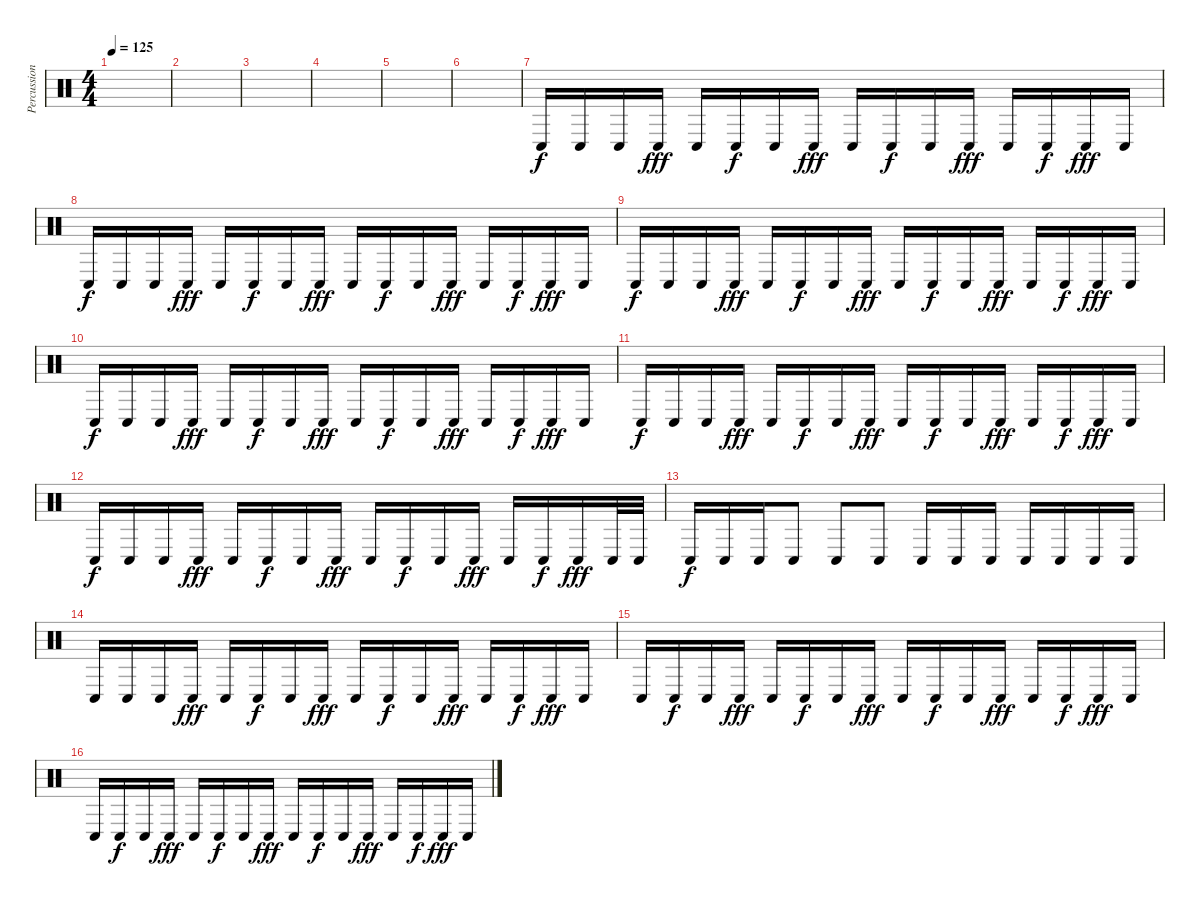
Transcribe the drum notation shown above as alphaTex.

\track ("Percussion" "Percussion") {instrument percussion}
\staff {score}
\articulation defaults
\ts (4 4)
\tempo 125
\clef neutral
\ks c
|
|
|
|
|
|
"Conga low (hit)".16 "Conga low (hit)".16 "Conga low (hit)".16 "Conga low (hit)".16{dy fff} "Conga low (hit)".16 "Conga low (hit)".16{dy f} "Conga low (hit)".16 "Conga low (hit)".16{dy fff} "Conga low (hit)".16 "Conga low (hit)".16{dy f} "Conga low (hit)".16 "Conga low (hit)".16{dy fff} "Conga low (hit)".16 "Conga low (hit)".16{dy f} "Conga low (hit)".16{dy fff} "Conga low (hit)".16 |
"Conga low (hit)".16{dy f} "Conga low (hit)".16 "Conga low (hit)".16 "Conga low (hit)".16{dy fff} "Conga low (hit)".16 "Conga low (hit)".16{dy f} "Conga low (hit)".16 "Conga low (hit)".16{dy fff} "Conga low (hit)".16 "Conga low (hit)".16{dy f} "Conga low (hit)".16 "Conga low (hit)".16{dy fff} "Conga low (hit)".16 "Conga low (hit)".16{dy f} "Conga low (hit)".16{dy fff} "Conga low (hit)".16 |
"Conga low (hit)".16{dy f} "Conga low (hit)".16 "Conga low (hit)".16 "Conga low (hit)".16{dy fff} "Conga low (hit)".16 "Conga low (hit)".16{dy f} "Conga low (hit)".16 "Conga low (hit)".16{dy fff} "Conga low (hit)".16 "Conga low (hit)".16{dy f} "Conga low (hit)".16 "Conga low (hit)".16{dy fff} "Conga low (hit)".16 "Conga low (hit)".16{dy f} "Conga low (hit)".16{dy fff} "Conga low (hit)".16 |
"Conga low (hit)".16{dy f} "Conga low (hit)".16 "Conga low (hit)".16 "Conga low (hit)".16{dy fff} "Conga low (hit)".16 "Conga low (hit)".16{dy f} "Conga low (hit)".16 "Conga low (hit)".16{dy fff} "Conga low (hit)".16 "Conga low (hit)".16{dy f} "Conga low (hit)".16 "Conga low (hit)".16{dy fff} "Conga low (hit)".16 "Conga low (hit)".16{dy f} "Conga low (hit)".16{dy fff} "Conga low (hit)".16 |
"Conga low (hit)".16{dy f} "Conga low (hit)".16 "Conga low (hit)".16 "Conga low (hit)".16{dy fff} "Conga low (hit)".16 "Conga low (hit)".16{dy f} "Conga low (hit)".16 "Conga low (hit)".16{dy fff} "Conga low (hit)".16 "Conga low (hit)".16{dy f} "Conga low (hit)".16 "Conga low (hit)".16{dy fff} "Conga low (hit)".16 "Conga low (hit)".16{dy f} "Conga low (hit)".16{dy fff} "Conga low (hit)".16 |
"Conga low (hit)".16{dy f} "Conga low (hit)".16 "Conga low (hit)".16 "Conga low (hit)".16{dy fff} "Conga low (hit)".16 "Conga low (hit)".16{dy f} "Conga low (hit)".16 "Conga low (hit)".16{dy fff} "Conga low (hit)".16 "Conga low (hit)".16{dy f} "Conga low (hit)".16 "Conga low (hit)".16{dy fff} "Conga low (hit)".16 "Conga low (hit)".16{dy f} "Conga low (hit)".16{dy fff} "Conga low (hit)".32 "Conga low (hit)".32 |
"Conga low (hit)".16{dy f} "Conga low (hit)".16 "Conga low (hit)".16 "Conga low (hit)".8 "Conga low (hit)".8 "Conga low (hit)".8 "Conga low (hit)".16 "Conga low (hit)".16 "Conga low (hit)".16 "Conga low (hit)".16 "Conga low (hit)".16 "Conga low (hit)".16 "Conga low (hit)".16 |
"Conga low (hit)".16 "Conga low (hit)".16 "Conga low (hit)".16 "Conga low (hit)".16{dy fff} "Conga low (hit)".16 "Conga low (hit)".16{dy f} "Conga low (hit)".16 "Conga low (hit)".16{dy fff} "Conga low (hit)".16 "Conga low (hit)".16{dy f} "Conga low (hit)".16 "Conga low (hit)".16{dy fff} "Conga low (hit)".16 "Conga low (hit)".16{dy f} "Conga low (hit)".16{dy fff} "Conga low (hit)".16 |
"Conga low (hit)".16 "Conga low (hit)".16{dy f} "Conga low (hit)".16 "Conga low (hit)".16{dy fff} "Conga low (hit)".16 "Conga low (hit)".16{dy f} "Conga low (hit)".16 "Conga low (hit)".16{dy fff} "Conga low (hit)".16 "Conga low (hit)".16{dy f} "Conga low (hit)".16 "Conga low (hit)".16{dy fff} "Conga low (hit)".16 "Conga low (hit)".16{dy f} "Conga low (hit)".16{dy fff} "Conga low (hit)".16 |
"Conga low (hit)".16{volume 10} "Conga low (hit)".16{dy f} "Conga low (hit)".16 "Conga low (hit)".16{dy fff} "Conga low (hit)".16 "Conga low (hit)".16{dy f} "Conga low (hit)".16 "Conga low (hit)".16{dy fff} "Conga low (hit)".16{volume 8} "Conga low (hit)".16{dy f} "Conga low (hit)".16 "Conga low (hit)".16{dy fff} "Conga low (hit)".16 "Conga low (hit)".16{dy f} "Conga low (hit)".16{dy fff} "Conga low (hit)".16
